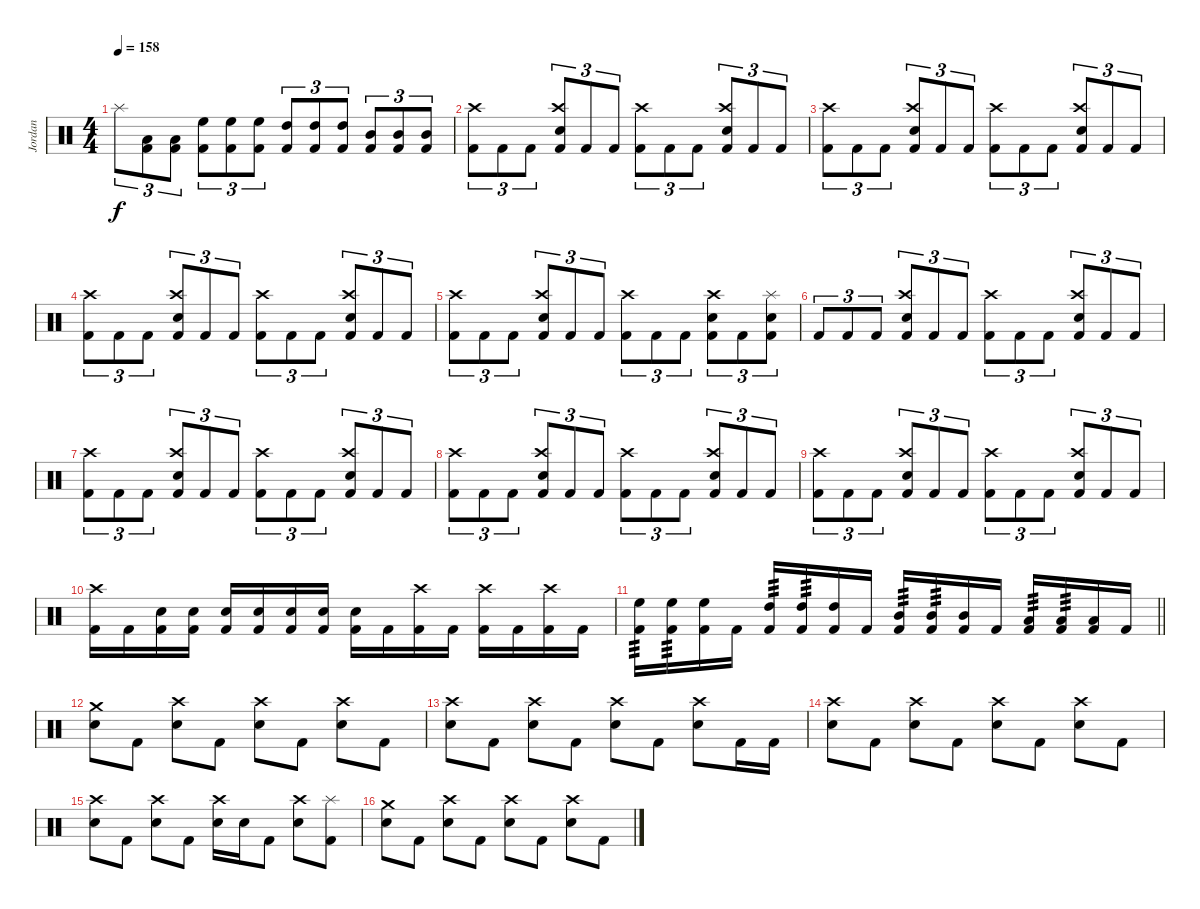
\track ("Jordan" "Jordan") {instrument percussion}
\staff {score}
\articulation defaults
\ts (4 4)
\tempo 158
\clef neutral
\ks c "Splash (hit)".8{tu (3 2) dy f}
("Low Tom (hit)" "Kick (hit) 2").8{tu (3 2)} ("Low Tom (hit)" "Kick (hit) 2").8{tu (3 2)} ("High Floor Tom (hit)" "Kick (hit) 2").8{tu (3 2)} ("High Floor Tom (hit)" "Kick (hit) 2").8{tu (3 2)} ("High Floor Tom (hit)" "Kick (hit) 2").8{tu (3 2)} ("High Tom (hit)" "Kick (hit) 2").8{tu (3 2)} ("High Tom (hit)" "Kick (hit) 2").8{tu (3 2)} ("High Tom (hit)" "Kick (hit) 2").8{tu (3 2)} ("Mid Tom (hit)" "Kick (hit) 2").8{tu (3 2)} ("Mid Tom (hit)" "Kick (hit) 2").8{tu (3 2)} ("Mid Tom (hit)" "Kick (hit) 2").8{tu (3 2)} |
("Crash high (hit)" "Kick (hit) 2").8{tu (3 2)} "Kick (hit) 2".8{tu (3 2)} "Kick (hit) 2".8{tu (3 2)} ("Crash high (hit)" "Electric Snare (hit)" "Kick (hit) 2").8{tu (3 2)} "Kick (hit) 2".8{tu (3 2)} "Kick (hit) 2".8{tu (3 2)} ("Crash high (hit)" "Kick (hit) 2").8{tu (3 2)} "Kick (hit) 2".8{tu (3 2)} "Kick (hit) 2".8{tu (3 2)} ("Crash high (hit)" "Electric Snare (hit)" "Kick (hit) 2").8{tu (3 2)} "Kick (hit) 2".8{tu (3 2)} "Kick (hit) 2".8{tu (3 2)} |
("Crash high (hit)" "Kick (hit) 2").8{tu (3 2)} "Kick (hit) 2".8{tu (3 2)} "Kick (hit) 2".8{tu (3 2)} ("Crash high (hit)" "Electric Snare (hit)" "Kick (hit) 2").8{tu (3 2)} "Kick (hit) 2".8{tu (3 2)} "Kick (hit) 2".8{tu (3 2)} ("Crash high (hit)" "Kick (hit) 2").8{tu (3 2)} "Kick (hit) 2".8{tu (3 2)} "Kick (hit) 2".8{tu (3 2)} ("Crash high (hit)" "Electric Snare (hit)" "Kick (hit) 2").8{tu (3 2)} "Kick (hit) 2".8{tu (3 2)} "Kick (hit) 2".8{tu (3 2)} |
("Crash high (hit)" "Kick (hit) 2").8{tu (3 2)} "Kick (hit) 2".8{tu (3 2)} "Kick (hit) 2".8{tu (3 2)} ("Crash high (hit)" "Electric Snare (hit)" "Kick (hit) 2").8{tu (3 2)} "Kick (hit) 2".8{tu (3 2)} "Kick (hit) 2".8{tu (3 2)} ("Crash high (hit)" "Kick (hit) 2").8{tu (3 2)} "Kick (hit) 2".8{tu (3 2)} "Kick (hit) 2".8{tu (3 2)} ("Crash high (hit)" "Electric Snare (hit)" "Kick (hit) 2").8{tu (3 2)} "Kick (hit) 2".8{tu (3 2)} "Kick (hit) 2".8{tu (3 2)} |
("Crash high (hit)" "Kick (hit) 2").8{tu (3 2)} "Kick (hit) 2".8{tu (3 2)} "Kick (hit) 2".8{tu (3 2)} ("Crash high (hit)" "Electric Snare (hit)" "Kick (hit) 2").8{tu (3 2)} "Kick (hit) 2".8{tu (3 2)} "Kick (hit) 2".8{tu (3 2)} ("Crash high (hit)" "Kick (hit) 2").8{tu (3 2)} "Kick (hit) 2".8{tu (3 2)} "Kick (hit) 2".8{tu (3 2)} ("Crash high (hit)" "Electric Snare (hit)" "Kick (hit) 2").8{tu (3 2)} "Kick (hit) 2".8{tu (3 2)} ("Splash (hit)" "Electric Snare (hit)" "Kick (hit) 2").8{tu (3 2)} |
"Kick (hit) 2".8{tu (3 2)} "Kick (hit) 2".8{tu (3 2)} "Kick (hit) 2".8{tu (3 2)} ("Crash high (hit)" "Electric Snare (hit)" "Kick (hit) 2").8{tu (3 2)} "Kick (hit) 2".8{tu (3 2)} "Kick (hit) 2".8{tu (3 2)} ("Crash high (hit)" "Kick (hit) 2").8{tu (3 2)} "Kick (hit) 2".8{tu (3 2)} "Kick (hit) 2".8{tu (3 2)} ("Crash high (hit)" "Electric Snare (hit)" "Kick (hit) 2").8{tu (3 2)} "Kick (hit) 2".8{tu (3 2)} "Kick (hit) 2".8{tu (3 2)} |
("Crash high (hit)" "Kick (hit) 2").8{tu (3 2)} "Kick (hit) 2".8{tu (3 2)} "Kick (hit) 2".8{tu (3 2)} ("Crash high (hit)" "Electric Snare (hit)" "Kick (hit) 2").8{tu (3 2)} "Kick (hit) 2".8{tu (3 2)} "Kick (hit) 2".8{tu (3 2)} ("Crash high (hit)" "Kick (hit) 2").8{tu (3 2)} "Kick (hit) 2".8{tu (3 2)} "Kick (hit) 2".8{tu (3 2)} ("Crash high (hit)" "Electric Snare (hit)" "Kick (hit) 2").8{tu (3 2)} "Kick (hit) 2".8{tu (3 2)} "Kick (hit) 2".8{tu (3 2)} |
("Crash high (hit)" "Kick (hit) 2").8{tu (3 2)} "Kick (hit) 2".8{tu (3 2)} "Kick (hit) 2".8{tu (3 2)} ("Crash high (hit)" "Electric Snare (hit)" "Kick (hit) 2").8{tu (3 2)} "Kick (hit) 2".8{tu (3 2)} "Kick (hit) 2".8{tu (3 2)} ("Crash high (hit)" "Kick (hit) 2").8{tu (3 2)} "Kick (hit) 2".8{tu (3 2)} "Kick (hit) 2".8{tu (3 2)} ("Crash high (hit)" "Electric Snare (hit)" "Kick (hit) 2").8{tu (3 2)} "Kick (hit) 2".8{tu (3 2)} "Kick (hit) 2".8{tu (3 2)} |
("Crash high (hit)" "Kick (hit) 2").8{tu (3 2)} "Kick (hit) 2".8{tu (3 2)} "Kick (hit) 2".8{tu (3 2)} ("Crash high (hit)" "Electric Snare (hit)" "Kick (hit) 2").8{tu (3 2)} "Kick (hit) 2".8{tu (3 2)} "Kick (hit) 2".8{tu (3 2)} ("Crash high (hit)" "Kick (hit) 2").8{tu (3 2)} "Kick (hit) 2".8{tu (3 2)} "Kick (hit) 2".8{tu (3 2)} ("Crash high (hit)" "Electric Snare (hit)" "Kick (hit) 2").8{tu (3 2)} "Kick (hit) 2".8{tu (3 2)} "Kick (hit) 2".8{tu (3 2)} |
("Crash high (hit)" "Kick (hit) 2").16 "Kick (hit) 2".16 ("Electric Snare (hit)" "Kick (hit) 2").16 ("Electric Snare (hit)" "Kick (hit) 2").16 ("Electric Snare (hit)" "Kick (hit) 2").16 ("Electric Snare (hit)" "Kick (hit) 2").16 ("Electric Snare (hit)" "Kick (hit) 2").16 ("Electric Snare (hit)" "Kick (hit) 2").16 ("Electric Snare (hit)" "Kick (hit) 2").16 "Kick (hit) 2".16 ("Crash high (hit)" "Kick (hit) 2").16 "Kick (hit) 2".16 ("Crash high (hit)" "Kick (hit) 2").16 "Kick (hit) 2".16 ("Crash high (hit)" "Kick (hit) 2").16 "Kick (hit) 2".16 |
\barLineRight lightlight
("High Floor Tom (hit)" "Kick (hit) 2").16{tp 3} ("High Floor Tom (hit)" "Kick (hit) 2").16{tp 3} ("High Floor Tom (hit)" "Kick (hit) 2").16 "Kick (hit) 2".16 ("High Tom (hit)" "Kick (hit) 2").16{tp 3} ("High Tom (hit)" "Kick (hit) 2").16{tp 3} ("High Tom (hit)" "Kick (hit) 2").16 "Kick (hit) 2".16 ("Mid Tom (hit)" "Kick (hit) 2").16{tp 3} ("Mid Tom (hit)" "Kick (hit) 2").16{tp 3} ("Mid Tom (hit)" "Kick (hit) 2").16 "Kick (hit) 2".16 ("Low Tom (hit)" "Kick (hit) 2").16{tp 3} ("Low Tom (hit)" "Kick (hit) 2").16{tp 3} ("Low Tom (hit)" "Kick (hit) 2").16 "Kick (hit) 2".16 |
("Crash medium (hit)" "Electric Snare (hit)").8 "Kick (hit) 2".8 ("Crash high (hit)" "Electric Snare (hit)").8 "Kick (hit) 2".8 ("Crash high (hit)" "Electric Snare (hit)").8 "Kick (hit) 2".8 ("Crash high (hit)" "Electric Snare (hit)").8 "Kick (hit) 2".8 |
("Crash high (hit)" "Electric Snare (hit)").8 "Kick (hit) 2".8 ("Crash high (hit)" "Electric Snare (hit)").8 "Kick (hit) 2".8 ("Crash high (hit)" "Electric Snare (hit)").8 "Kick (hit) 2".8 ("Crash high (hit)" "Electric Snare (hit)").8 "Kick (hit) 2".16 "Kick (hit) 2".16 |
("Crash high (hit)" "Electric Snare (hit)").8 "Kick (hit) 2".8 ("Crash high (hit)" "Electric Snare (hit)").8 "Kick (hit) 2".8 ("Crash high (hit)" "Electric Snare (hit)").8 "Kick (hit) 2".8 ("Crash high (hit)" "Electric Snare (hit)").8 "Kick (hit) 2".8 |
("Crash high (hit)" "Electric Snare (hit)").8 "Kick (hit) 2".8 ("Crash high (hit)" "Electric Snare (hit)").8 "Kick (hit) 2".8 ("Crash high (hit)" "Electric Snare (hit)").16 "Electric Snare (hit)".16 "Kick (hit) 2".8 ("Crash high (hit)" "Electric Snare (hit)").8 ("Splash (hit)" "Kick (hit) 2").8 |
("Crash medium (hit)" "Electric Snare (hit)").8 "Kick (hit) 2".8 ("Crash high (hit)" "Electric Snare (hit)").8 "Kick (hit) 2".8 ("Crash high (hit)" "Electric Snare (hit)").8 "Kick (hit) 2".8 ("Crash high (hit)" "Electric Snare (hit)").8 "Kick (hit) 2".8
